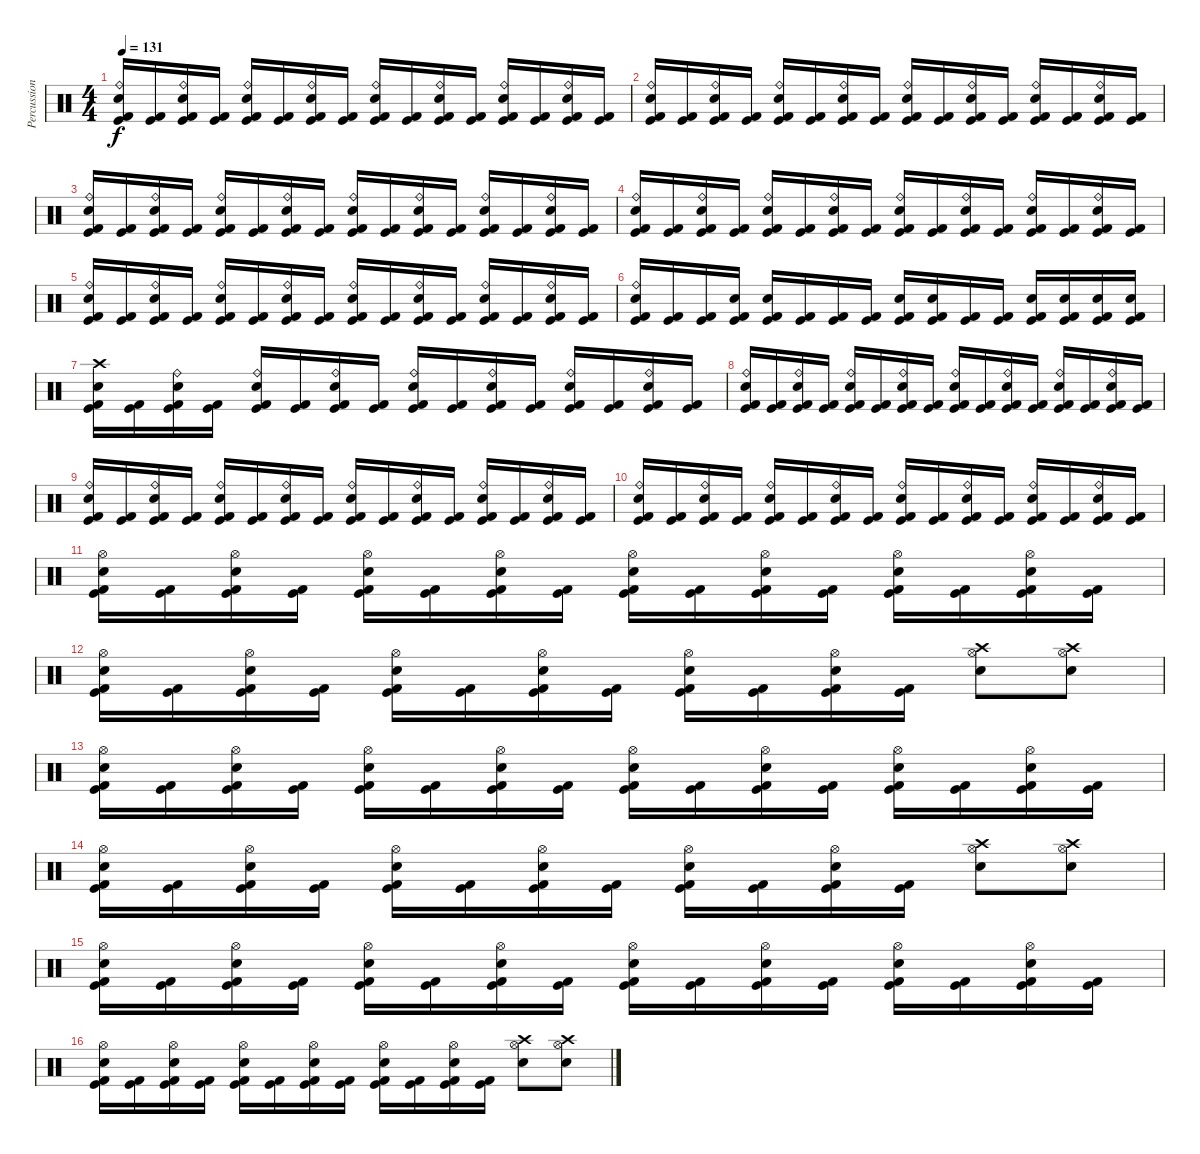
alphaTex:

\track ("Percussion" "Percussion") {instrument percussion}
\staff {score}
\articulation defaults
\ts (4 4)
\tempo 131
\clef neutral
\ks c
("Snare (hit) 2" "Ride (bell)" "Kick (hit)" "Kick (hit) 2").16{dy f} ("Kick (hit)" "Kick (hit) 2").16 ("Snare (hit) 2" "Ride (bell)" "Kick (hit)" "Kick (hit) 2").16 ("Kick (hit)" "Kick (hit) 2").16 ("Snare (hit) 2" "Ride (bell)" "Kick (hit)" "Kick (hit) 2").16 ("Kick (hit)" "Kick (hit) 2").16 ("Snare (hit) 2" "Ride (bell)" "Kick (hit)" "Kick (hit) 2").16 ("Kick (hit)" "Kick (hit) 2").16 ("Snare (hit) 2" "Ride (bell)" "Kick (hit)" "Kick (hit) 2").16 ("Kick (hit)" "Kick (hit) 2").16 ("Snare (hit) 2" "Ride (bell)" "Kick (hit)" "Kick (hit) 2").16 ("Kick (hit)" "Kick (hit) 2").16 ("Snare (hit) 2" "Ride (bell)" "Kick (hit)" "Kick (hit) 2").16 ("Kick (hit)" "Kick (hit) 2").16 ("Snare (hit) 2" "Ride (bell)" "Kick (hit)" "Kick (hit) 2").16 ("Kick (hit)" "Kick (hit) 2").16 |
("Snare (hit) 2" "Ride (bell)" "Kick (hit)" "Kick (hit) 2").16 ("Kick (hit)" "Kick (hit) 2").16 ("Snare (hit) 2" "Ride (bell)" "Kick (hit)" "Kick (hit) 2").16 ("Kick (hit)" "Kick (hit) 2").16 ("Snare (hit) 2" "Ride (bell)" "Kick (hit)" "Kick (hit) 2").16 ("Kick (hit)" "Kick (hit) 2").16 ("Snare (hit) 2" "Ride (bell)" "Kick (hit)" "Kick (hit) 2").16 ("Kick (hit)" "Kick (hit) 2").16 ("Snare (hit) 2" "Ride (bell)" "Kick (hit)" "Kick (hit) 2").16 ("Kick (hit)" "Kick (hit) 2").16 ("Snare (hit) 2" "Ride (bell)" "Kick (hit)" "Kick (hit) 2").16 ("Kick (hit)" "Kick (hit) 2").16 ("Snare (hit) 2" "Ride (bell)" "Kick (hit)" "Kick (hit) 2").16 ("Kick (hit)" "Kick (hit) 2").16 ("Snare (hit) 2" "Ride (bell)" "Kick (hit)" "Kick (hit) 2").16 ("Kick (hit)" "Kick (hit) 2").16 |
("Snare (hit) 2" "Ride (bell)" "Kick (hit)" "Kick (hit) 2").16 ("Kick (hit)" "Kick (hit) 2").16 ("Snare (hit) 2" "Ride (bell)" "Kick (hit)" "Kick (hit) 2").16 ("Kick (hit)" "Kick (hit) 2").16 ("Snare (hit) 2" "Ride (bell)" "Kick (hit)" "Kick (hit) 2").16 ("Kick (hit)" "Kick (hit) 2").16 ("Snare (hit) 2" "Ride (bell)" "Kick (hit)" "Kick (hit) 2").16 ("Kick (hit)" "Kick (hit) 2").16 ("Snare (hit) 2" "Ride (bell)" "Kick (hit)" "Kick (hit) 2").16 ("Kick (hit)" "Kick (hit) 2").16 ("Snare (hit) 2" "Ride (bell)" "Kick (hit)" "Kick (hit) 2").16 ("Kick (hit)" "Kick (hit) 2").16 ("Snare (hit) 2" "Ride (bell)" "Kick (hit)" "Kick (hit) 2").16 ("Kick (hit)" "Kick (hit) 2").16 ("Snare (hit) 2" "Ride (bell)" "Kick (hit)" "Kick (hit) 2").16 ("Kick (hit)" "Kick (hit) 2").16 |
("Snare (hit) 2" "Ride (bell)" "Kick (hit)" "Kick (hit) 2").16 ("Kick (hit)" "Kick (hit) 2").16 ("Snare (hit) 2" "Ride (bell)" "Kick (hit)" "Kick (hit) 2").16 ("Kick (hit)" "Kick (hit) 2").16 ("Snare (hit) 2" "Ride (bell)" "Kick (hit)" "Kick (hit) 2").16 ("Kick (hit)" "Kick (hit) 2").16 ("Snare (hit) 2" "Ride (bell)" "Kick (hit)" "Kick (hit) 2").16 ("Kick (hit)" "Kick (hit) 2").16 ("Snare (hit) 2" "Ride (bell)" "Kick (hit)" "Kick (hit) 2").16 ("Kick (hit)" "Kick (hit) 2").16 ("Snare (hit) 2" "Ride (bell)" "Kick (hit)" "Kick (hit) 2").16 ("Kick (hit)" "Kick (hit) 2").16 ("Snare (hit) 2" "Ride (bell)" "Kick (hit)" "Kick (hit) 2").16 ("Kick (hit)" "Kick (hit) 2").16 ("Snare (hit) 2" "Ride (bell)" "Kick (hit)" "Kick (hit) 2").16 ("Kick (hit)" "Kick (hit) 2").16 |
("Snare (hit) 2" "Ride (bell)" "Kick (hit)" "Kick (hit) 2").16 ("Kick (hit)" "Kick (hit) 2").16 ("Snare (hit) 2" "Ride (bell)" "Kick (hit)" "Kick (hit) 2").16 ("Kick (hit)" "Kick (hit) 2").16 ("Snare (hit) 2" "Ride (bell)" "Kick (hit)" "Kick (hit) 2").16 ("Kick (hit)" "Kick (hit) 2").16 ("Snare (hit) 2" "Ride (bell)" "Kick (hit)" "Kick (hit) 2").16 ("Kick (hit)" "Kick (hit) 2").16 ("Snare (hit) 2" "Ride (bell)" "Kick (hit)" "Kick (hit) 2").16 ("Kick (hit)" "Kick (hit) 2").16 ("Snare (hit) 2" "Ride (bell)" "Kick (hit)" "Kick (hit) 2").16 ("Kick (hit)" "Kick (hit) 2").16 ("Snare (hit) 2" "Ride (bell)" "Kick (hit)" "Kick (hit) 2").16 ("Kick (hit)" "Kick (hit) 2").16 ("Snare (hit) 2" "Ride (bell)" "Kick (hit)" "Kick (hit) 2").16 ("Kick (hit)" "Kick (hit) 2").16 |
("Snare (hit) 2" "Ride (bell)" "Kick (hit)" "Kick (hit) 2").16 ("Kick (hit)" "Kick (hit) 2").16 ("Kick (hit)" "Kick (hit) 2").16 ("Snare (hit) 2" "Kick (hit)" "Kick (hit) 2").16 ("Snare (hit) 2" "Kick (hit)" "Kick (hit) 2").16 ("Kick (hit)" "Kick (hit) 2").16 ("Kick (hit)" "Kick (hit) 2").16 ("Kick (hit)" "Kick (hit) 2").16 ("Snare (hit) 2" "Kick (hit)" "Kick (hit) 2").16 ("Snare (hit) 2" "Kick (hit)" "Kick (hit) 2").16 ("Kick (hit)" "Kick (hit) 2").16 ("Kick (hit)" "Kick (hit) 2").16 ("Snare (hit) 2" "Kick (hit)" "Kick (hit) 2").16 ("Snare (hit) 2" "Kick (hit)" "Kick (hit) 2").16 ("Snare (hit) 2" "Kick (hit)" "Kick (hit) 2").16 ("Snare (hit) 2" "Kick (hit)" "Kick (hit) 2").16 |
("Snare (hit) 2" "Crash high (hit)" "Kick (hit)" "Kick (hit) 2").16 ("Kick (hit)" "Kick (hit) 2").16 ("Snare (hit) 2" "Ride (bell)" "Kick (hit)" "Kick (hit) 2").16 ("Kick (hit)" "Kick (hit) 2").16 ("Snare (hit) 2" "Ride (bell)" "Kick (hit)" "Kick (hit) 2").16 ("Kick (hit)" "Kick (hit) 2").16 ("Snare (hit) 2" "Ride (bell)" "Kick (hit)" "Kick (hit) 2").16 ("Kick (hit)" "Kick (hit) 2").16 ("Snare (hit) 2" "Ride (bell)" "Kick (hit)" "Kick (hit) 2").16 ("Kick (hit)" "Kick (hit) 2").16 ("Snare (hit) 2" "Ride (bell)" "Kick (hit)" "Kick (hit) 2").16 ("Kick (hit)" "Kick (hit) 2").16 ("Snare (hit) 2" "Ride (bell)" "Kick (hit)" "Kick (hit) 2").16 ("Kick (hit)" "Kick (hit) 2").16 ("Snare (hit) 2" "Ride (bell)" "Kick (hit)" "Kick (hit) 2").16 ("Kick (hit)" "Kick (hit) 2").16 |
("Snare (hit) 2" "Ride (bell)" "Kick (hit)" "Kick (hit) 2").16 ("Kick (hit)" "Kick (hit) 2").16 ("Snare (hit) 2" "Ride (bell)" "Kick (hit)" "Kick (hit) 2").16 ("Kick (hit)" "Kick (hit) 2").16 ("Snare (hit) 2" "Ride (bell)" "Kick (hit)" "Kick (hit) 2").16 ("Kick (hit)" "Kick (hit) 2").16 ("Snare (hit) 2" "Ride (bell)" "Kick (hit)" "Kick (hit) 2").16 ("Kick (hit)" "Kick (hit) 2").16 ("Snare (hit) 2" "Ride (bell)" "Kick (hit)" "Kick (hit) 2").16 ("Kick (hit)" "Kick (hit) 2").16 ("Snare (hit) 2" "Ride (bell)" "Kick (hit)" "Kick (hit) 2").16 ("Kick (hit)" "Kick (hit) 2").16 ("Snare (hit) 2" "Ride (bell)" "Kick (hit)" "Kick (hit) 2").16 ("Kick (hit)" "Kick (hit) 2").16 ("Snare (hit) 2" "Ride (bell)" "Kick (hit)" "Kick (hit) 2").16 ("Kick (hit)" "Kick (hit) 2").16 |
("Snare (hit) 2" "Ride (bell)" "Kick (hit)" "Kick (hit) 2").16 ("Kick (hit)" "Kick (hit) 2").16 ("Snare (hit) 2" "Ride (bell)" "Kick (hit)" "Kick (hit) 2").16 ("Kick (hit)" "Kick (hit) 2").16 ("Snare (hit) 2" "Ride (bell)" "Kick (hit)" "Kick (hit) 2").16 ("Kick (hit)" "Kick (hit) 2").16 ("Snare (hit) 2" "Ride (bell)" "Kick (hit)" "Kick (hit) 2").16 ("Kick (hit)" "Kick (hit) 2").16 ("Snare (hit) 2" "Ride (bell)" "Kick (hit)" "Kick (hit) 2").16 ("Kick (hit)" "Kick (hit) 2").16 ("Snare (hit) 2" "Ride (bell)" "Kick (hit)" "Kick (hit) 2").16 ("Kick (hit)" "Kick (hit) 2").16 ("Snare (hit) 2" "Ride (bell)" "Kick (hit)" "Kick (hit) 2").16 ("Kick (hit)" "Kick (hit) 2").16 ("Snare (hit) 2" "Ride (bell)" "Kick (hit)" "Kick (hit) 2").16 ("Kick (hit)" "Kick (hit) 2").16 |
("Snare (hit) 2" "Ride (bell)" "Kick (hit)" "Kick (hit) 2").16 ("Kick (hit)" "Kick (hit) 2").16 ("Snare (hit) 2" "Ride (bell)" "Kick (hit)" "Kick (hit) 2").16 ("Kick (hit)" "Kick (hit) 2").16 ("Snare (hit) 2" "Ride (bell)" "Kick (hit)" "Kick (hit) 2").16 ("Kick (hit)" "Kick (hit) 2").16 ("Snare (hit) 2" "Ride (bell)" "Kick (hit)" "Kick (hit) 2").16 ("Kick (hit)" "Kick (hit) 2").16 ("Snare (hit) 2" "Ride (bell)" "Kick (hit)" "Kick (hit) 2").16 ("Kick (hit)" "Kick (hit) 2").16 ("Snare (hit) 2" "Ride (bell)" "Kick (hit)" "Kick (hit) 2").16 ("Kick (hit)" "Kick (hit) 2").16 ("Snare (hit) 2" "Ride (bell)" "Kick (hit)" "Kick (hit) 2").16 ("Kick (hit)" "Kick (hit) 2").16 ("Snare (hit) 2" "Ride (bell)" "Kick (hit)" "Kick (hit) 2").16 ("Kick (hit)" "Kick (hit) 2").16 |
("Snare (hit) 2" "Hi-Hat (open)" "Kick (hit)" "Kick (hit) 2").16 ("Kick (hit)" "Kick (hit) 2").16 ("Snare (hit) 2" "Hi-Hat (open)" "Kick (hit)" "Kick (hit) 2").16 ("Kick (hit)" "Kick (hit) 2").16 ("Snare (hit) 2" "Hi-Hat (open)" "Kick (hit)" "Kick (hit) 2").16 ("Kick (hit)" "Kick (hit) 2").16 ("Snare (hit) 2" "Hi-Hat (open)" "Kick (hit)" "Kick (hit) 2").16 ("Kick (hit)" "Kick (hit) 2").16 ("Snare (hit) 2" "Hi-Hat (open)" "Kick (hit)" "Kick (hit) 2").16 ("Kick (hit)" "Kick (hit) 2").16 ("Snare (hit) 2" "Hi-Hat (open)" "Kick (hit)" "Kick (hit) 2").16 ("Kick (hit)" "Kick (hit) 2").16 ("Snare (hit) 2" "Hi-Hat (open)" "Kick (hit)" "Kick (hit) 2").16 ("Kick (hit)" "Kick (hit) 2").16 ("Snare (hit) 2" "Hi-Hat (open)" "Kick (hit)" "Kick (hit) 2").16 ("Kick (hit)" "Kick (hit) 2").16 |
("Snare (hit) 2" "Hi-Hat (open)" "Kick (hit)" "Kick (hit) 2").16 ("Kick (hit)" "Kick (hit) 2").16 ("Snare (hit) 2" "Hi-Hat (open)" "Kick (hit)" "Kick (hit) 2").16 ("Kick (hit)" "Kick (hit) 2").16 ("Snare (hit) 2" "Hi-Hat (open)" "Kick (hit)" "Kick (hit) 2").16 ("Kick (hit)" "Kick (hit) 2").16 ("Snare (hit) 2" "Hi-Hat (open)" "Kick (hit)" "Kick (hit) 2").16 ("Kick (hit)" "Kick (hit) 2").16 ("Snare (hit) 2" "Hi-Hat (open)" "Kick (hit)" "Kick (hit) 2").16 ("Kick (hit)" "Kick (hit) 2").16 ("Snare (hit) 2" "Hi-Hat (open)" "Kick (hit)" "Kick (hit) 2").16 ("Kick (hit)" "Kick (hit) 2").16 ("Hi-Hat (open)" "Crash high (hit)" "Snare (hit) 2").8 ("Hi-Hat (open)" "Crash high (hit)" "Snare (hit) 2").8 |
("Snare (hit) 2" "Hi-Hat (open)" "Kick (hit)" "Kick (hit) 2").16 ("Kick (hit)" "Kick (hit) 2").16 ("Snare (hit) 2" "Hi-Hat (open)" "Kick (hit)" "Kick (hit) 2").16 ("Kick (hit)" "Kick (hit) 2").16 ("Snare (hit) 2" "Hi-Hat (open)" "Kick (hit)" "Kick (hit) 2").16 ("Kick (hit)" "Kick (hit) 2").16 ("Snare (hit) 2" "Hi-Hat (open)" "Kick (hit)" "Kick (hit) 2").16 ("Kick (hit)" "Kick (hit) 2").16 ("Snare (hit) 2" "Hi-Hat (open)" "Kick (hit)" "Kick (hit) 2").16 ("Kick (hit)" "Kick (hit) 2").16 ("Snare (hit) 2" "Hi-Hat (open)" "Kick (hit)" "Kick (hit) 2").16 ("Kick (hit)" "Kick (hit) 2").16 ("Snare (hit) 2" "Hi-Hat (open)" "Kick (hit)" "Kick (hit) 2").16 ("Kick (hit)" "Kick (hit) 2").16 ("Snare (hit) 2" "Hi-Hat (open)" "Kick (hit)" "Kick (hit) 2").16 ("Kick (hit)" "Kick (hit) 2").16 |
("Snare (hit) 2" "Hi-Hat (open)" "Kick (hit)" "Kick (hit) 2").16 ("Kick (hit)" "Kick (hit) 2").16 ("Snare (hit) 2" "Hi-Hat (open)" "Kick (hit)" "Kick (hit) 2").16 ("Kick (hit)" "Kick (hit) 2").16 ("Snare (hit) 2" "Hi-Hat (open)" "Kick (hit)" "Kick (hit) 2").16 ("Kick (hit)" "Kick (hit) 2").16 ("Snare (hit) 2" "Hi-Hat (open)" "Kick (hit)" "Kick (hit) 2").16 ("Kick (hit)" "Kick (hit) 2").16 ("Snare (hit) 2" "Hi-Hat (open)" "Kick (hit)" "Kick (hit) 2").16 ("Kick (hit)" "Kick (hit) 2").16 ("Snare (hit) 2" "Hi-Hat (open)" "Kick (hit)" "Kick (hit) 2").16 ("Kick (hit)" "Kick (hit) 2").16 ("Hi-Hat (open)" "Crash high (hit)" "Snare (hit) 2").8 ("Hi-Hat (open)" "Crash high (hit)" "Snare (hit) 2").8 |
("Snare (hit) 2" "Hi-Hat (open)" "Kick (hit)" "Kick (hit) 2").16 ("Kick (hit)" "Kick (hit) 2").16 ("Snare (hit) 2" "Hi-Hat (open)" "Kick (hit)" "Kick (hit) 2").16 ("Kick (hit)" "Kick (hit) 2").16 ("Snare (hit) 2" "Hi-Hat (open)" "Kick (hit)" "Kick (hit) 2").16 ("Kick (hit)" "Kick (hit) 2").16 ("Snare (hit) 2" "Hi-Hat (open)" "Kick (hit)" "Kick (hit) 2").16 ("Kick (hit)" "Kick (hit) 2").16 ("Snare (hit) 2" "Hi-Hat (open)" "Kick (hit)" "Kick (hit) 2").16 ("Kick (hit)" "Kick (hit) 2").16 ("Snare (hit) 2" "Hi-Hat (open)" "Kick (hit)" "Kick (hit) 2").16 ("Kick (hit)" "Kick (hit) 2").16 ("Snare (hit) 2" "Hi-Hat (open)" "Kick (hit)" "Kick (hit) 2").16 ("Kick (hit)" "Kick (hit) 2").16 ("Snare (hit) 2" "Hi-Hat (open)" "Kick (hit)" "Kick (hit) 2").16 ("Kick (hit)" "Kick (hit) 2").16 |
("Snare (hit) 2" "Hi-Hat (open)" "Kick (hit)" "Kick (hit) 2").16 ("Kick (hit)" "Kick (hit) 2").16 ("Snare (hit) 2" "Hi-Hat (open)" "Kick (hit)" "Kick (hit) 2").16 ("Kick (hit)" "Kick (hit) 2").16 ("Snare (hit) 2" "Hi-Hat (open)" "Kick (hit)" "Kick (hit) 2").16 ("Kick (hit)" "Kick (hit) 2").16 ("Snare (hit) 2" "Hi-Hat (open)" "Kick (hit)" "Kick (hit) 2").16 ("Kick (hit)" "Kick (hit) 2").16 ("Snare (hit) 2" "Hi-Hat (open)" "Kick (hit)" "Kick (hit) 2").16 ("Kick (hit)" "Kick (hit) 2").16 ("Snare (hit) 2" "Hi-Hat (open)" "Kick (hit)" "Kick (hit) 2").16 ("Kick (hit)" "Kick (hit) 2").16 ("Hi-Hat (open)" "Crash high (hit)" "Snare (hit) 2").8 ("Hi-Hat (open)" "Crash high (hit)" "Snare (hit) 2").8
